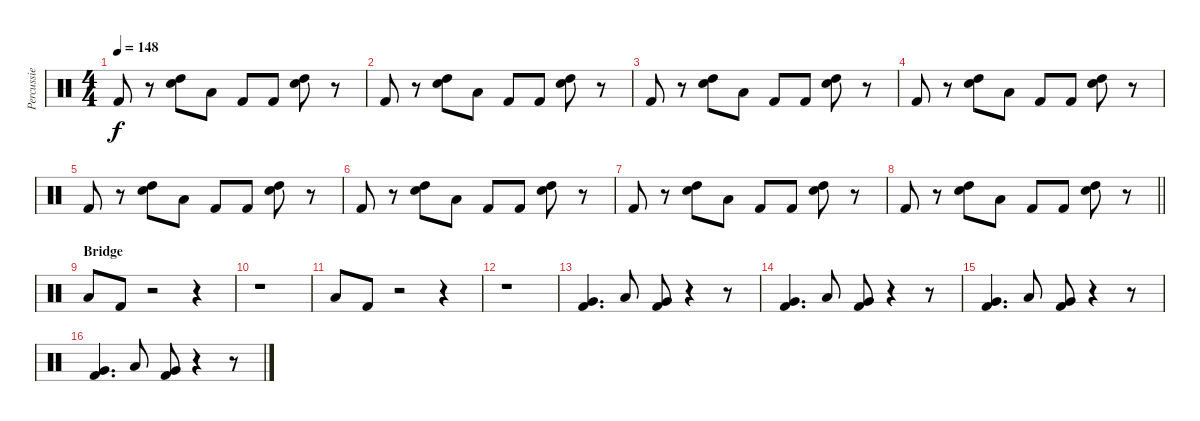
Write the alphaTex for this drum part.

\track ("Percussie" "Percussie") {instrument percussion}
\staff {score}
\articulation defaults
\ts (4 4)
\tempo 148
\clef neutral
\ks c "Kick (hit) 2".8{dy f}
r.8 ("Electric Snare (hit)" "High Tom (hit)").8 "Low Tom (hit)".8 "Kick (hit) 2".8 "Kick (hit) 2".8 ("Electric Snare (hit)" "High Tom (hit)").8 r.8 |
"Kick (hit) 2".8 r.8 ("Electric Snare (hit)" "High Tom (hit)").8 "Low Tom (hit)".8 "Kick (hit) 2".8 "Kick (hit) 2".8 ("Electric Snare (hit)" "High Tom (hit)").8 r.8 |
"Kick (hit) 2".8 r.8 ("Electric Snare (hit)" "High Tom (hit)").8 "Low Tom (hit)".8 "Kick (hit) 2".8 "Kick (hit) 2".8 ("Electric Snare (hit)" "High Tom (hit)").8 r.8 |
"Kick (hit) 2".8 r.8 ("Electric Snare (hit)" "High Tom (hit)").8 "Low Tom (hit)".8 "Kick (hit) 2".8 "Kick (hit) 2".8 ("Electric Snare (hit)" "High Tom (hit)").8 r.8 |
"Kick (hit) 2".8 r.8 ("Electric Snare (hit)" "High Tom (hit)").8 "Low Tom (hit)".8 "Kick (hit) 2".8 "Kick (hit) 2".8 ("Electric Snare (hit)" "High Tom (hit)").8 r.8 |
"Kick (hit) 2".8 r.8 ("Electric Snare (hit)" "High Tom (hit)").8 "Low Tom (hit)".8 "Kick (hit) 2".8 "Kick (hit) 2".8 ("Electric Snare (hit)" "High Tom (hit)").8 r.8 |
"Kick (hit) 2".8 r.8 ("Electric Snare (hit)" "High Tom (hit)").8 "Low Tom (hit)".8 "Kick (hit) 2".8 "Kick (hit) 2".8 ("Electric Snare (hit)" "High Tom (hit)").8 r.8 |
\barLineRight lightlight "Kick (hit) 2".8
r.8 ("Electric Snare (hit)" "High Tom (hit)").8 "Low Tom (hit)".8 "Kick (hit) 2".8 "Kick (hit) 2".8 ("Electric Snare (hit)" "High Tom (hit)").8 r.8 |
\section ("" "Bridge")
"Low Tom (hit)".8 "Kick (hit) 2".8 r.2 r.4 |
r.1 |
"Low Tom (hit)".8 "Kick (hit) 2".8 r.2 r.4 |
r.1 |
("Very Low Tom (hit)" "Kick (hit) 2").4{d} "Low Tom (hit)".8 ("Very Low Tom (hit)" "Kick (hit) 2").8 r.4 r.8 |
("Very Low Tom (hit)" "Kick (hit) 2").4{d} "Low Tom (hit)".8 ("Very Low Tom (hit)" "Kick (hit) 2").8 r.4 r.8 |
("Very Low Tom (hit)" "Kick (hit) 2").4{d} "Low Tom (hit)".8 ("Very Low Tom (hit)" "Kick (hit) 2").8 r.4 r.8 |
("Very Low Tom (hit)" "Kick (hit) 2").4{d} "Low Tom (hit)".8 ("Very Low Tom (hit)" "Kick (hit) 2").8 r.4 r.8
